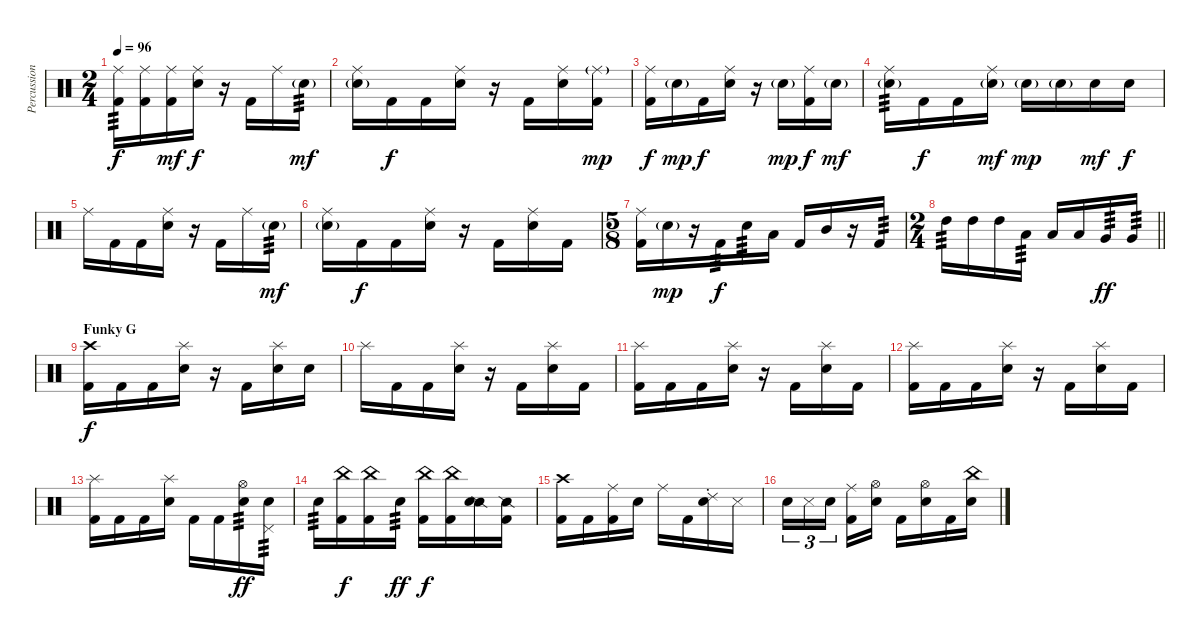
\track ("Percussion" "Percussion") {instrument percussion}
\staff {score}
\articulation defaults
\ts (2 4)
\tempo 96
\clef neutral
\ks c
("Ride (middle)" "Kick (hit) 2").16{tp 3 dy f} ("Ride (middle)" "Kick (hit) 2").16 ("Ride (middle)" "Kick (hit) 2").16{dy mf} ("Ride (middle)" "Snare (hit) 2").16{dy f} r.16 "Kick (hit) 2".16 "Ride (middle)".16 "Snare (hit) 2"{g}.16{tp 3 dy mf} |
("Ride (middle)" "Snare (hit) 2"{g}).16 "Kick (hit) 2".16{dy f} "Kick (hit) 2".16 ("Ride (middle)" "Snare (hit) 2").16 r.16 "Kick (hit) 2".16 ("Ride (middle)" "Snare (hit) 2").16 ("Ride (middle)"{g} "Kick (hit) 2").16{dy mp} |
("Ride (middle)" "Kick (hit) 2").16{dy f} "Snare (hit) 2"{g}.16{dy mp} "Kick (hit) 2".16{dy f} ("Ride (middle)" "Snare (hit) 2").16 r.16 "Snare (hit) 2"{g}.16{dy mp} ("Ride (middle)" "Kick (hit) 2").16{dy f} "Snare (hit) 2"{g}.16{dy mf} |
("Ride (middle)" "Snare (hit) 2"{g}).16{tp 3} "Kick (hit) 2".16{dy f} "Kick (hit) 2".16 ("Ride (middle)" "Snare (hit) 2"{g}).16{dy mf} "Snare (hit) 2"{g}.16{dy mp} "Snare (hit) 2"{g}.16 "Snare (hit) 2".16{dy mf} "Snare (hit) 2".16{dy f} |
"Ride (middle)".16 "Kick (hit) 2".16 "Kick (hit) 2".16 ("Ride (middle)" "Snare (hit) 2").16 r.16 "Kick (hit) 2".16 "Ride (middle)".16 "Snare (hit) 2"{g}.16{tp 3 dy mf} |
("Ride (middle)" "Snare (hit) 2"{g}).16 "Kick (hit) 2".16{dy f} "Kick (hit) 2".16 ("Ride (middle)" "Snare (hit) 2").16 r.16 "Kick (hit) 2".16 ("Ride (middle)" "Snare (hit) 2").16 "Kick (hit) 2".16 |
\ts (5 8)
("Ride (middle)" "Kick (hit) 2").16 "Snare (hit) 2"{g}.16{dy mp} r.16 "Kick (hit) 2".16{tp 3 dy f} "Snare (hit) 2".16{tp 3} "Low Tom (hit)".16 "Kick (hit) 2".16 "Mid Tom (hit)".16 r.16 "Kick (hit) 2".16{tp 3} |
\ts (2 4)
\barLineRight lightlight "High Tom (hit)".16{tp 3} "High Tom (hit)".16 "High Tom (hit)".16 "Low Tom (hit)".16{tp 3} "Low Tom (hit)".16 "Low Tom (hit)".16 "Very Low Tom (hit)".16{tp 3 dy ff} "Very Low Tom (hit)".16{tp 3}
|
\section ("" "Funky G")
("Crash high (hit)" "Kick (hit) 2").16{dy f} "Kick (hit) 2".16 "Kick (hit) 2".16 ("Splash (hit)" "Snare (hit) 2").16 r.16 "Kick (hit) 2".16 ("Splash (hit)" "Snare (hit) 2").16 "Snare (hit) 2".16 |
"Splash (hit)".16 "Kick (hit) 2".16 "Kick (hit) 2".16 ("Splash (hit)" "Snare (hit) 2").16 r.16 "Kick (hit) 2".16 ("Splash (hit)" "Snare (hit) 2").16 "Kick (hit) 2".16 |
("Splash (hit)" "Kick (hit) 2").16 "Kick (hit) 2".16 "Kick (hit) 2".16 ("Splash (hit)" "Snare (hit) 2").16 r.16 "Kick (hit) 2".16 ("Splash (hit)" "Snare (hit) 2").16 "Kick (hit) 2".16 |
("Splash (hit)" "Kick (hit) 2").16 "Kick (hit) 2".16 "Kick (hit) 2".16 ("Splash (hit)" "Snare (hit) 2").16 r.16 "Kick (hit) 2".16 ("Splash (hit)" "Snare (hit) 2").16 "Kick (hit) 2".16 |
("Splash (hit)" "Kick (hit) 2").16 "Kick (hit) 2".16 "Kick (hit) 2".16 ("Splash (hit)" "Snare (hit) 2").16 "Kick (hit) 2".16 "Kick (hit) 2".16 ("Hi-Hat (open)" "Snare (hit) 2").16{tp 3 dy ff} ("Pedal Hi-Hat (hit)" "Snare (hit) 2").16{tp 3} |
"Snare (hit) 2".16{tp 3} ("China (hit)" "Kick (hit) 2").16{dy f} ("China (hit)" "Kick (hit) 2").16 "Snare (hit) 2".16{tp 3 dy ff} ("China (hit)" "Kick (hit) 2").16{dy f} ("China (hit)" "Kick (hit) 2").16 ("Snare (side stick) 2" "Snare (hit) 2").16 ("Snare (side stick) 2" "Kick (hit) 2").16 |
("Crash high (hit)" "Kick (hit) 2").16 "Kick (hit) 2".16 ("Ride (middle)" "Kick (hit) 2").16 "Snare (hit) 2".16 "Ride (middle)".16 "Kick (hit) 2".16 ("Ride (choke) 2" "Snare (hit) 2").16 "Metronome (hit)".16 |
"Snare (hit) 2".16{tu (3 2)} "Metronome (hit)".16{tu (3 2)} "Snare (hit) 2".16{tu (3 2) beam splitsecondary} ("Ride (middle)" "Kick (hit) 2").16 ("Hi-Hat (open)" "Snare (hit) 2").16 "Kick (hit) 2".16 ("Hi-Hat (open)" "Snare (hit) 2").16 "Kick (hit) 2".16 ("China (hit)" "Snare (hit) 2").16
